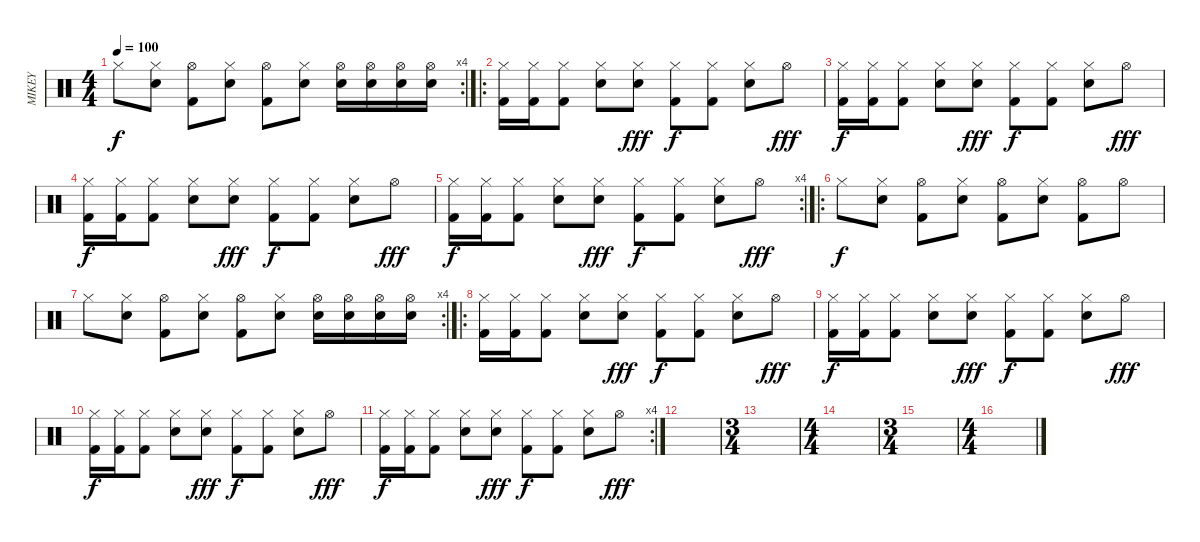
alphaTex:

\track ("MIKEY" "MIKEY") {instrument percussion}
\staff {score}
\articulation defaults
\rc 4
\ts (4 4)
\tempo 100
\clef neutral
\ks c "Hi-Hat (closed)".8{dy f}
("Electric Snare (hit)" "Hi-Hat (closed)").8 ("Kick (hit) 2" "Hi-Hat (open)").8 ("Electric Snare (hit)" "Hi-Hat (closed)").8 ("Kick (hit) 2" "Hi-Hat (open)").8 ("Electric Snare (hit)" "Hi-Hat (closed)").8 ("Electric Snare (hit)" "Hi-Hat (open)").16 ("Electric Snare (hit)" "Hi-Hat (open)").16 ("Electric Snare (hit)" "Hi-Hat (open)").16 ("Electric Snare (hit)" "Hi-Hat (open)").16 |
\ro
("Kick (hit) 2" "Hi-Hat (closed)").16 ("Kick (hit) 2" "Hi-Hat (closed)").16 ("Kick (hit) 2" "Hi-Hat (closed)").8 ("Snare (hit) 2" "Hi-Hat (closed)").8 ("Snare (hit) 2" "Hi-Hat (closed)").8{dy fff} ("Kick (hit) 2" "Hi-Hat (closed)").8{dy f} ("Kick (hit) 2" "Hi-Hat (closed)").8 ("Snare (hit) 2" "Hi-Hat (closed)").8 "Hi-Hat (open)".8{dy fff} |
("Kick (hit) 2" "Hi-Hat (closed)").16{dy f} ("Kick (hit) 2" "Hi-Hat (closed)").16 ("Kick (hit) 2" "Hi-Hat (closed)").8 ("Snare (hit) 2" "Hi-Hat (closed)").8 ("Snare (hit) 2" "Hi-Hat (closed)").8{dy fff} ("Kick (hit) 2" "Hi-Hat (closed)").8{dy f} ("Kick (hit) 2" "Hi-Hat (closed)").8 ("Snare (hit) 2" "Hi-Hat (closed)").8 "Hi-Hat (open)".8{dy fff} |
("Kick (hit) 2" "Hi-Hat (closed)").16{dy f} ("Kick (hit) 2" "Hi-Hat (closed)").16 ("Kick (hit) 2" "Hi-Hat (closed)").8 ("Snare (hit) 2" "Hi-Hat (closed)").8 ("Snare (hit) 2" "Hi-Hat (closed)").8{dy fff} ("Kick (hit) 2" "Hi-Hat (closed)").8{dy f} ("Kick (hit) 2" "Hi-Hat (closed)").8 ("Snare (hit) 2" "Hi-Hat (closed)").8 "Hi-Hat (open)".8{dy fff} |
\rc 4
("Kick (hit) 2" "Hi-Hat (closed)").16{dy f} ("Kick (hit) 2" "Hi-Hat (closed)").16 ("Kick (hit) 2" "Hi-Hat (closed)").8 ("Snare (hit) 2" "Hi-Hat (closed)").8 ("Snare (hit) 2" "Hi-Hat (closed)").8{dy fff} ("Kick (hit) 2" "Hi-Hat (closed)").8{dy f} ("Kick (hit) 2" "Hi-Hat (closed)").8 ("Snare (hit) 2" "Hi-Hat (closed)").8 "Hi-Hat (open)".8{dy fff} |
\ro "Hi-Hat (closed)".8{dy f}
("Electric Snare (hit)" "Hi-Hat (closed)").8 ("Kick (hit) 2" "Hi-Hat (open)").8 ("Electric Snare (hit)" "Hi-Hat (closed)").8 ("Kick (hit) 2" "Hi-Hat (open)").8 ("Electric Snare (hit)" "Hi-Hat (closed)").8 ("Kick (hit) 2" "Hi-Hat (open)").8 "Hi-Hat (open)".8 |
\rc 4 "Hi-Hat (closed)".8
("Electric Snare (hit)" "Hi-Hat (closed)").8 ("Kick (hit) 2" "Hi-Hat (open)").8 ("Electric Snare (hit)" "Hi-Hat (closed)").8 ("Kick (hit) 2" "Hi-Hat (open)").8 ("Electric Snare (hit)" "Hi-Hat (closed)").8 ("Electric Snare (hit)" "Hi-Hat (open)").16 ("Electric Snare (hit)" "Hi-Hat (open)").16 ("Electric Snare (hit)" "Hi-Hat (open)").16 ("Electric Snare (hit)" "Hi-Hat (open)").16 |
\ro
("Kick (hit) 2" "Hi-Hat (closed)").16 ("Kick (hit) 2" "Hi-Hat (closed)").16 ("Kick (hit) 2" "Hi-Hat (closed)").8 ("Snare (hit) 2" "Hi-Hat (closed)").8 ("Snare (hit) 2" "Hi-Hat (closed)").8{dy fff} ("Kick (hit) 2" "Hi-Hat (closed)").8{dy f} ("Kick (hit) 2" "Hi-Hat (closed)").8 ("Snare (hit) 2" "Hi-Hat (closed)").8 "Hi-Hat (open)".8{dy fff} |
("Kick (hit) 2" "Hi-Hat (closed)").16{dy f} ("Kick (hit) 2" "Hi-Hat (closed)").16 ("Kick (hit) 2" "Hi-Hat (closed)").8 ("Snare (hit) 2" "Hi-Hat (closed)").8 ("Snare (hit) 2" "Hi-Hat (closed)").8{dy fff} ("Kick (hit) 2" "Hi-Hat (closed)").8{dy f} ("Kick (hit) 2" "Hi-Hat (closed)").8 ("Snare (hit) 2" "Hi-Hat (closed)").8 "Hi-Hat (open)".8{dy fff} |
("Kick (hit) 2" "Hi-Hat (closed)").16{dy f} ("Kick (hit) 2" "Hi-Hat (closed)").16 ("Kick (hit) 2" "Hi-Hat (closed)").8 ("Snare (hit) 2" "Hi-Hat (closed)").8 ("Snare (hit) 2" "Hi-Hat (closed)").8{dy fff} ("Kick (hit) 2" "Hi-Hat (closed)").8{dy f} ("Kick (hit) 2" "Hi-Hat (closed)").8 ("Snare (hit) 2" "Hi-Hat (closed)").8 "Hi-Hat (open)".8{dy fff} |
\rc 4
("Kick (hit) 2" "Hi-Hat (closed)").16{dy f} ("Kick (hit) 2" "Hi-Hat (closed)").16 ("Kick (hit) 2" "Hi-Hat (closed)").8 ("Snare (hit) 2" "Hi-Hat (closed)").8 ("Snare (hit) 2" "Hi-Hat (closed)").8{dy fff} ("Kick (hit) 2" "Hi-Hat (closed)").8{dy f} ("Kick (hit) 2" "Hi-Hat (closed)").8 ("Snare (hit) 2" "Hi-Hat (closed)").8 "Hi-Hat (open)".8{dy fff} |
|
\ts (3 4)
|
\ts (4 4)
|
\ts (3 4)
|
\ts (4 4)
